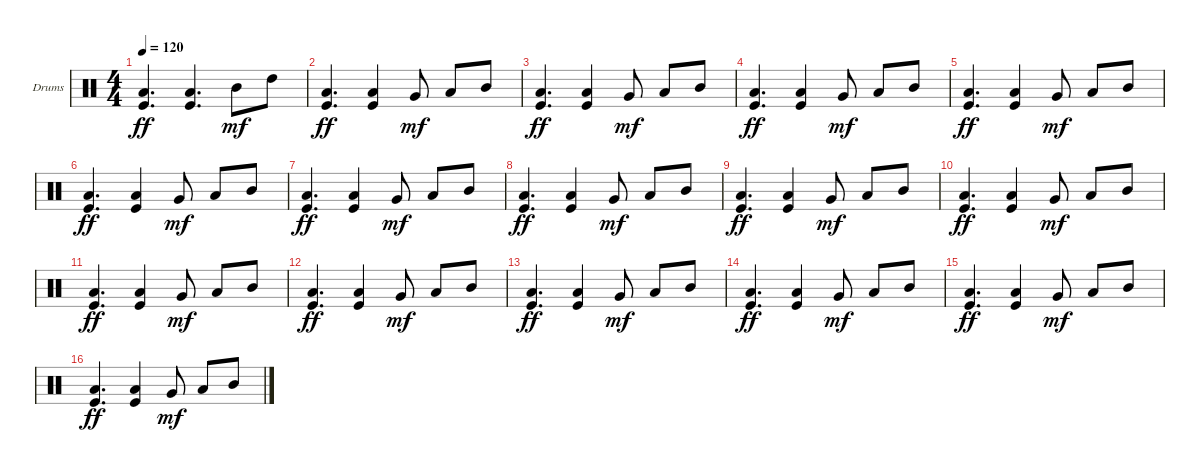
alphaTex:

\defaultSystemsLayout 4
\bracketExtendMode groupsimilarinstruments
\firstSystemTrackNameOrientation horizontal
\otherSystemsTrackNameOrientation horizontal
\track ("Drums" "Drums") {instrument percussion}
\staff {score}
\articulation defaults
\ts (4 4)
\tempo 120
\clef neutral
\ks c
("Kick (hit)" "Low Tom (hit)").4{d dy ff} ("Kick (hit)" "Low Tom (hit)").4{d} "Mid Tom (hit)".8{dy mf} "High Tom (hit)".8 |
("Kick (hit)" "Low Tom (hit)").4{d dy ff} ("Kick (hit)" "Low Tom (hit)").4 "Very Low Tom (hit)".8{dy mf} "Low Tom (hit)".8 "Mid Tom (hit)".8 |
("Kick (hit)" "Low Tom (hit)").4{d dy ff} ("Kick (hit)" "Low Tom (hit)").4 "Very Low Tom (hit)".8{dy mf} "Low Tom (hit)".8 "Mid Tom (hit)".8 |
("Kick (hit)" "Low Tom (hit)").4{d dy ff} ("Kick (hit)" "Low Tom (hit)").4 "Very Low Tom (hit)".8{dy mf} "Low Tom (hit)".8 "Mid Tom (hit)".8 |
("Kick (hit)" "Low Tom (hit)").4{d dy ff} ("Kick (hit)" "Low Tom (hit)").4 "Very Low Tom (hit)".8{dy mf} "Low Tom (hit)".8 "Mid Tom (hit)".8 |
("Kick (hit)" "Low Tom (hit)").4{d dy ff} ("Kick (hit)" "Low Tom (hit)").4 "Very Low Tom (hit)".8{dy mf} "Low Tom (hit)".8 "Mid Tom (hit)".8 |
("Kick (hit)" "Low Tom (hit)").4{d dy ff} ("Kick (hit)" "Low Tom (hit)").4 "Very Low Tom (hit)".8{dy mf} "Low Tom (hit)".8 "Mid Tom (hit)".8 |
("Kick (hit)" "Low Tom (hit)").4{d dy ff} ("Kick (hit)" "Low Tom (hit)").4 "Very Low Tom (hit)".8{dy mf} "Low Tom (hit)".8 "Mid Tom (hit)".8 |
("Kick (hit)" "Low Tom (hit)").4{d dy ff} ("Kick (hit)" "Low Tom (hit)").4 "Very Low Tom (hit)".8{dy mf} "Low Tom (hit)".8 "Mid Tom (hit)".8 |
("Kick (hit)" "Low Tom (hit)").4{d dy ff} ("Kick (hit)" "Low Tom (hit)").4 "Very Low Tom (hit)".8{dy mf} "Low Tom (hit)".8 "Mid Tom (hit)".8 |
("Kick (hit)" "Low Tom (hit)").4{d dy ff} ("Kick (hit)" "Low Tom (hit)").4 "Very Low Tom (hit)".8{dy mf} "Low Tom (hit)".8 "Mid Tom (hit)".8 |
("Kick (hit)" "Low Tom (hit)").4{d dy ff} ("Kick (hit)" "Low Tom (hit)").4 "Very Low Tom (hit)".8{dy mf} "Low Tom (hit)".8 "Mid Tom (hit)".8 |
("Kick (hit)" "Low Tom (hit)").4{d dy ff} ("Kick (hit)" "Low Tom (hit)").4 "Very Low Tom (hit)".8{dy mf} "Low Tom (hit)".8 "Mid Tom (hit)".8 |
("Kick (hit)" "Low Tom (hit)").4{d dy ff} ("Kick (hit)" "Low Tom (hit)").4 "Very Low Tom (hit)".8{dy mf} "Low Tom (hit)".8 "Mid Tom (hit)".8 |
("Kick (hit)" "Low Tom (hit)").4{d dy ff} ("Kick (hit)" "Low Tom (hit)").4 "Very Low Tom (hit)".8{dy mf} "Low Tom (hit)".8 "Mid Tom (hit)".8 |
("Kick (hit)" "Low Tom (hit)").4{d dy ff} ("Kick (hit)" "Low Tom (hit)").4 "Very Low Tom (hit)".8{dy mf} "Low Tom (hit)".8 "Mid Tom (hit)".8
